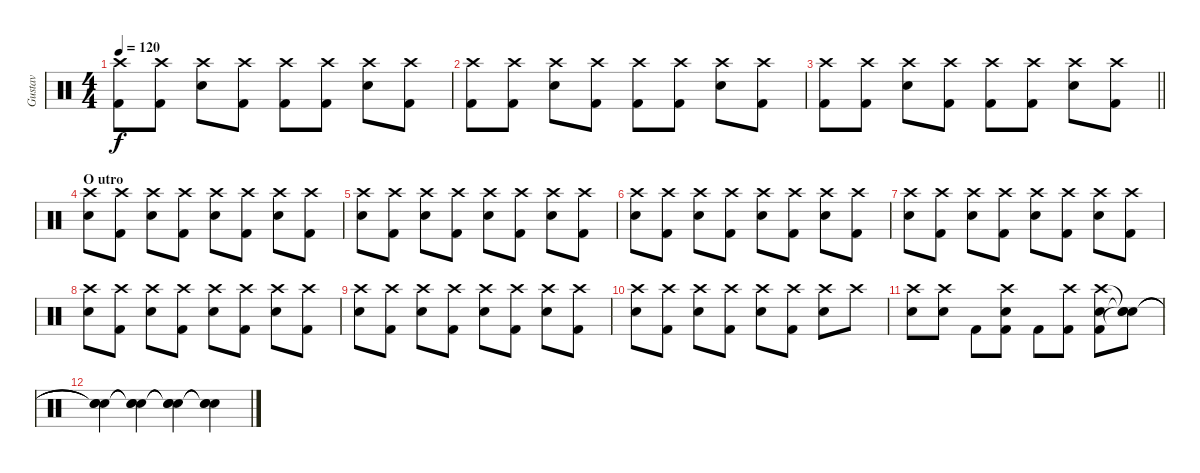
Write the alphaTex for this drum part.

\track ("Gustav" "Gustav") {instrument percussion}
\staff {score}
\articulation defaults
\ts (4 4)
\tempo 120
\clef neutral
\ks c
("Crash high (hit)" "Kick (hit) 2").8{dy f} ("Crash high (hit)" "Kick (hit) 2").8 ("Snare (hit) 2" "Crash high (hit)").8 ("Crash high (hit)" "Kick (hit) 2").8 ("Kick (hit) 2" "Crash high (hit)").8 ("Crash high (hit)" "Kick (hit) 2").8 ("Snare (hit) 2" "Crash high (hit)").8 ("Crash high (hit)" "Kick (hit) 2").8 |
("Crash high (hit)" "Kick (hit) 2").8 ("Crash high (hit)" "Kick (hit) 2").8 ("Snare (hit) 2" "Crash high (hit)").8 ("Crash high (hit)" "Kick (hit) 2").8 ("Kick (hit) 2" "Crash high (hit)").8 ("Crash high (hit)" "Kick (hit) 2").8 ("Snare (hit) 2" "Crash high (hit)").8 ("Crash high (hit)" "Kick (hit) 2").8 |
\barLineRight lightlight
("Crash high (hit)" "Kick (hit) 2").8 ("Crash high (hit)" "Kick (hit) 2").8 ("Snare (hit) 2" "Crash high (hit)").8 ("Crash high (hit)" "Kick (hit) 2").8 ("Kick (hit) 2" "Crash high (hit)").8 ("Crash high (hit)" "Kick (hit) 2").8 ("Snare (hit) 2" "Crash high (hit)").8 ("Crash high (hit)" "Kick (hit) 2").8 |
\section ("" "O utro")
("Crash high (hit)" "Snare (hit) 2").8 ("Crash high (hit)" "Kick (hit) 2").8 ("Crash high (hit)" "Snare (hit) 2").8 ("Crash high (hit)" "Kick (hit) 2").8 ("Crash high (hit)" "Snare (hit) 2").8 ("Crash high (hit)" "Kick (hit) 2").8 ("Crash high (hit)" "Snare (hit) 2").8 ("Crash high (hit)" "Kick (hit) 2").8 |
("Crash high (hit)" "Snare (hit) 2").8 ("Crash high (hit)" "Kick (hit) 2").8 ("Crash high (hit)" "Snare (hit) 2").8 ("Crash high (hit)" "Kick (hit) 2").8 ("Crash high (hit)" "Snare (hit) 2").8 ("Crash high (hit)" "Kick (hit) 2").8 ("Crash high (hit)" "Snare (hit) 2").8 ("Crash high (hit)" "Kick (hit) 2").8 |
("Crash high (hit)" "Snare (hit) 2").8 ("Crash high (hit)" "Kick (hit) 2").8 ("Crash high (hit)" "Snare (hit) 2").8 ("Crash high (hit)" "Kick (hit) 2").8 ("Crash high (hit)" "Snare (hit) 2").8 ("Crash high (hit)" "Kick (hit) 2").8 ("Crash high (hit)" "Snare (hit) 2").8 ("Crash high (hit)" "Kick (hit) 2").8 |
("Crash high (hit)" "Snare (hit) 2").8 ("Crash high (hit)" "Kick (hit) 2").8 ("Crash high (hit)" "Snare (hit) 2").8 ("Crash high (hit)" "Kick (hit) 2").8 ("Crash high (hit)" "Snare (hit) 2").8 ("Crash high (hit)" "Kick (hit) 2").8 ("Crash high (hit)" "Snare (hit) 2").8 ("Crash high (hit)" "Kick (hit) 2").8 |
("Crash high (hit)" "Snare (hit) 2").8 ("Crash high (hit)" "Kick (hit) 2").8 ("Crash high (hit)" "Snare (hit) 2").8 ("Crash high (hit)" "Kick (hit) 2").8 ("Crash high (hit)" "Snare (hit) 2").8 ("Crash high (hit)" "Kick (hit) 2").8 ("Crash high (hit)" "Snare (hit) 2").8 ("Crash high (hit)" "Kick (hit) 2").8 |
("Crash high (hit)" "Snare (hit) 2").8 ("Crash high (hit)" "Kick (hit) 2").8 ("Crash high (hit)" "Snare (hit) 2").8 ("Crash high (hit)" "Kick (hit) 2").8 ("Crash high (hit)" "Snare (hit) 2").8 ("Crash high (hit)" "Kick (hit) 2").8 ("Crash high (hit)" "Snare (hit) 2").8 ("Crash high (hit)" "Kick (hit) 2").8 |
("Crash high (hit)" "Snare (hit) 2").8 ("Crash high (hit)" "Kick (hit) 2").8 ("Crash high (hit)" "Snare (hit) 2").8 ("Crash high (hit)" "Kick (hit) 2").8 ("Crash high (hit)" "Snare (hit) 2").8 ("Crash high (hit)" "Kick (hit) 2").8 ("Snare (hit) 2" "Crash high (hit)").8 "Crash high (hit)".8 |
("Snare (hit) 2" "Crash high (hit)").8 ("Snare (hit) 2" "Crash high (hit)").8 "Kick (hit) 2".8 ("Kick (hit) 2" "Snare (hit) 2" "Crash high (hit)").8 "Kick (hit) 2".8 ("Kick (hit) 2" "Crash high (hit)").8 ("Kick (hit) 2" "Snare (hit) 2" "Crash high (hit)").8 ("Snare (hit)"{t} "Snare (hit)"{t} "Snare (hit)"{t}).8 |
("Snare (hit)"{t} "Snare (hit)"{t} "Snare (hit)"{t}).4 ("Snare (hit)"{t} "Snare (hit)"{t} "Snare (hit)"{t}).4 ("Snare (hit)"{t} "Snare (hit)"{t} "Snare (hit)"{t}).4 ("Snare (hit)"{t} "Snare (hit)"{t} "Snare (hit)"{t}).4
